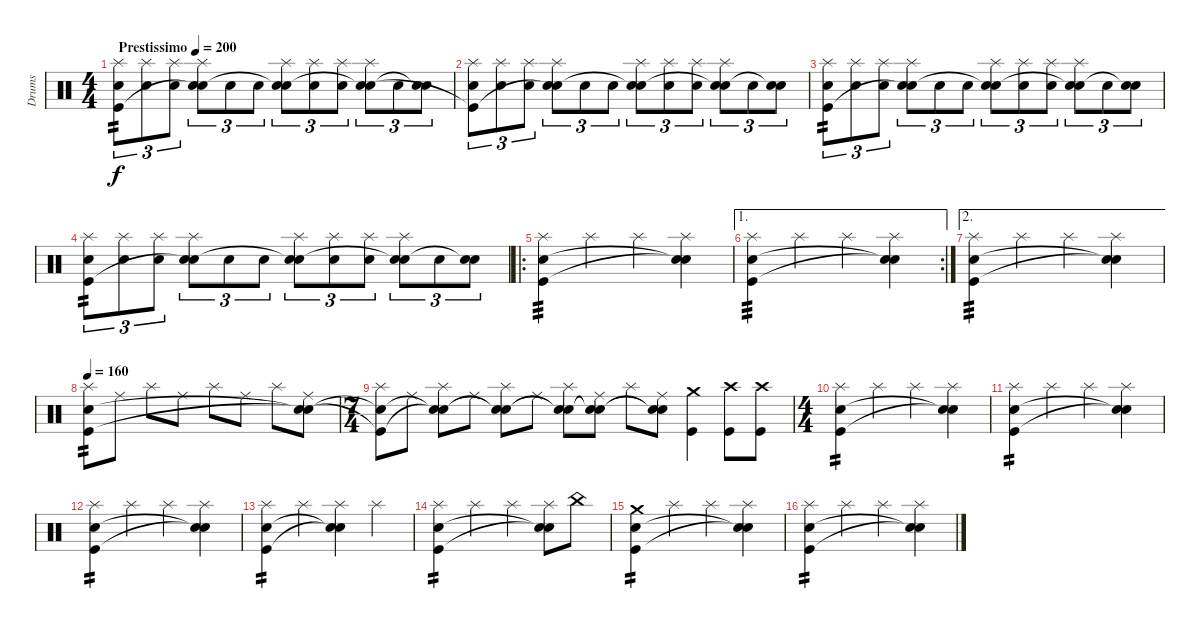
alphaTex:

\track ("Drums" "Drums") {instrument percussion}
\staff {score}
\articulation defaults
\ts (4 4)
\tempo (200 "Prestissimo")
\clef neutral
\ks c
("Splash (hit)" "Electric Snare (hit)" "Kick (hit)").8{tu (3 2) tp 2 dy f} ("Splash (hit)" "Electric Snare (hit)").8{tu (3 2)} ("Splash (hit)" "Electric Snare (hit)").8{tu (3 2)} ("Splash (hit)" "Electric Snare (hit)" "Snare (hit)"{t}).8{tu (3 2)} "Electric Snare (hit)".8{tu (3 2)} "Electric Snare (hit)".8{tu (3 2)} ("Splash (hit)" "Electric Snare (hit)" "Snare (hit)"{t}).8{tu (3 2)} ("Splash (hit)" "Electric Snare (hit)").8{tu (3 2)} ("Splash (hit)" "Electric Snare (hit)").8{tu (3 2)} ("Splash (hit)" "Electric Snare (hit)" "Snare (hit)"{t}).8{tu (3 2)} "Electric Snare (hit)".8{tu (3 2)} ("Electric Snare (hit)" "Snare (hit)"{t}).8{tu (3 2)} |
("Splash (hit)" "Electric Snare (hit)" "Kick (hit)"{t}).8{tu (3 2)} ("Splash (hit)" "Electric Snare (hit)").8{tu (3 2)} ("Splash (hit)" "Electric Snare (hit)").8{tu (3 2)} ("Splash (hit)" "Electric Snare (hit)" "Snare (hit)"{t}).8{tu (3 2)} "Electric Snare (hit)".8{tu (3 2)} "Electric Snare (hit)".8{tu (3 2)} ("Splash (hit)" "Electric Snare (hit)" "Snare (hit)"{t}).8{tu (3 2)} ("Splash (hit)" "Electric Snare (hit)").8{tu (3 2)} ("Splash (hit)" "Electric Snare (hit)").8{tu (3 2)} ("Splash (hit)" "Electric Snare (hit)" "Snare (hit)"{t}).8{tu (3 2)} "Electric Snare (hit)".8{tu (3 2)} ("Electric Snare (hit)" "Snare (hit)"{t}).8{tu (3 2)} |
("Splash (hit)" "Electric Snare (hit)" "Kick (hit)").8{tu (3 2) tp 2} ("Splash (hit)" "Electric Snare (hit)").8{tu (3 2)} ("Splash (hit)" "Electric Snare (hit)").8{tu (3 2)} ("Splash (hit)" "Electric Snare (hit)" "Snare (hit)"{t}).8{tu (3 2)} "Electric Snare (hit)".8{tu (3 2)} "Electric Snare (hit)".8{tu (3 2)} ("Splash (hit)" "Electric Snare (hit)" "Snare (hit)"{t}).8{tu (3 2)} ("Splash (hit)" "Electric Snare (hit)").8{tu (3 2)} ("Splash (hit)" "Electric Snare (hit)").8{tu (3 2)} ("Splash (hit)" "Electric Snare (hit)" "Snare (hit)"{t}).8{tu (3 2)} "Electric Snare (hit)".8{tu (3 2)} ("Electric Snare (hit)" "Snare (hit)"{t}).8{tu (3 2)} |
("Splash (hit)" "Electric Snare (hit)" "Kick (hit)").8{tu (3 2) tp 2} ("Splash (hit)" "Electric Snare (hit)").8{tu (3 2)} ("Splash (hit)" "Electric Snare (hit)").8{tu (3 2)} ("Splash (hit)" "Electric Snare (hit)" "Snare (hit)"{t}).8{tu (3 2)} "Electric Snare (hit)".8{tu (3 2)} "Electric Snare (hit)".8{tu (3 2)} ("Splash (hit)" "Electric Snare (hit)" "Snare (hit)"{t}).8{tu (3 2)} ("Splash (hit)" "Electric Snare (hit)").8{tu (3 2)} ("Splash (hit)" "Electric Snare (hit)").8{tu (3 2)} ("Splash (hit)" "Electric Snare (hit)" "Snare (hit)"{t}).8{tu (3 2)} "Electric Snare (hit)".8{tu (3 2)} ("Electric Snare (hit)" "Snare (hit)"{t}).8{tu (3 2)} |
\ro
("Splash (hit)" "Electric Snare (hit)" "Kick (hit)").4{tp 3} "Splash (hit)".4 "Splash (hit)".4 ("Splash (hit)" "Snare (hit)"{t} "Snare (hit)"{t}).4 |
\ae 1
\rc 2
("Splash (hit)" "Electric Snare (hit)" "Kick (hit)").4{tp 3} "Splash (hit)".4 "Splash (hit)".4 ("Splash (hit)" "Snare (hit)"{t} "Snare (hit)"{t}).4 |
\ae 2
("Splash (hit)" "Electric Snare (hit)" "Kick (hit)").4{tp 3} "Splash (hit)".4 "Splash (hit)".4 ("Splash (hit)" "Snare (hit)"{t} "Snare (hit)"{t}).4 |
\tempo 160
("Splash (hit)" "Electric Snare (hit)" "Kick (hit)").8{tp 2} "Ride (middle)".8 "Splash (hit)".8 "Ride (middle)".8 "Splash (hit)".8 "Ride (middle)".8 "Splash (hit)".8 ("Ride (middle)" "Snare (hit)"{t} "Snare (hit)"{t}).8 |
\ts (7 4)
("Splash (hit)" "Electric Snare (hit)"{t} "Kick (hit)"{t}).8 "Ride (middle)".8 ("Splash (hit)" "Snare (hit)"{t} "Snare (hit)"{t}).8 "Ride (middle)".8 ("Splash (hit)" "Snare (hit)"{t} "Snare (hit)"{t}).8 "Ride (middle)".8 ("Splash (hit)" "Snare (hit)"{t} "Snare (hit)"{t}).8 ("Ride (middle)" "Snare (hit)"{t} "Snare (hit)"{t}).8 "Splash (hit)".8 ("Ride (middle)" "Snare (hit)"{t} "Snare (hit)"{t}).8 ("Crash medium (hit)" "Kick (hit)").4 ("Crash high (hit)" "Kick (hit)").8 ("Crash high (hit)" "Kick (hit)").8 |
\ts (4 4)
("Splash (hit)" "Electric Snare (hit)" "Kick (hit)").4{tp 2} "Splash (hit)".4 "Splash (hit)".4 ("Splash (hit)" "Snare (hit)"{t} "Snare (hit)"{t}).4 |
("Splash (hit)" "Electric Snare (hit)" "Kick (hit)").4{tp 2} "Splash (hit)".4 "Splash (hit)".4 ("Splash (hit)" "Snare (hit)"{t} "Snare (hit)"{t}).4 |
("Splash (hit)" "Electric Snare (hit)" "Kick (hit)").4{tp 2} "Splash (hit)".4 "Splash (hit)".4 ("Splash (hit)" "Snare (hit)"{t} "Snare (hit)"{t}).4 |
("Splash (hit)" "Electric Snare (hit)" "Kick (hit)").4{tp 2} "Splash (hit)".4 ("Splash (hit)" "Snare (hit)"{t} "Snare (hit)"{t}).4 "Splash (hit)".4 |
("Splash (hit)" "Electric Snare (hit)" "Kick (hit)").4{tp 2} "Splash (hit)".4 "Splash (hit)".4 ("Splash (hit)" "Snare (hit)"{t} "Snare (hit)"{t}).8 "China (hit)".8 |
("Crash medium (hit)" "Electric Snare (hit)" "Kick (hit)").4{tp 2} "Splash (hit)".4 "Splash (hit)".4 ("Splash (hit)" "Snare (hit)"{t} "Snare (hit)"{t}).4 |
("Splash (hit)" "Electric Snare (hit)" "Kick (hit)").4{tp 2} "Splash (hit)".4 "Splash (hit)".4 ("Splash (hit)" "Snare (hit)"{t} "Snare (hit)"{t}).4
